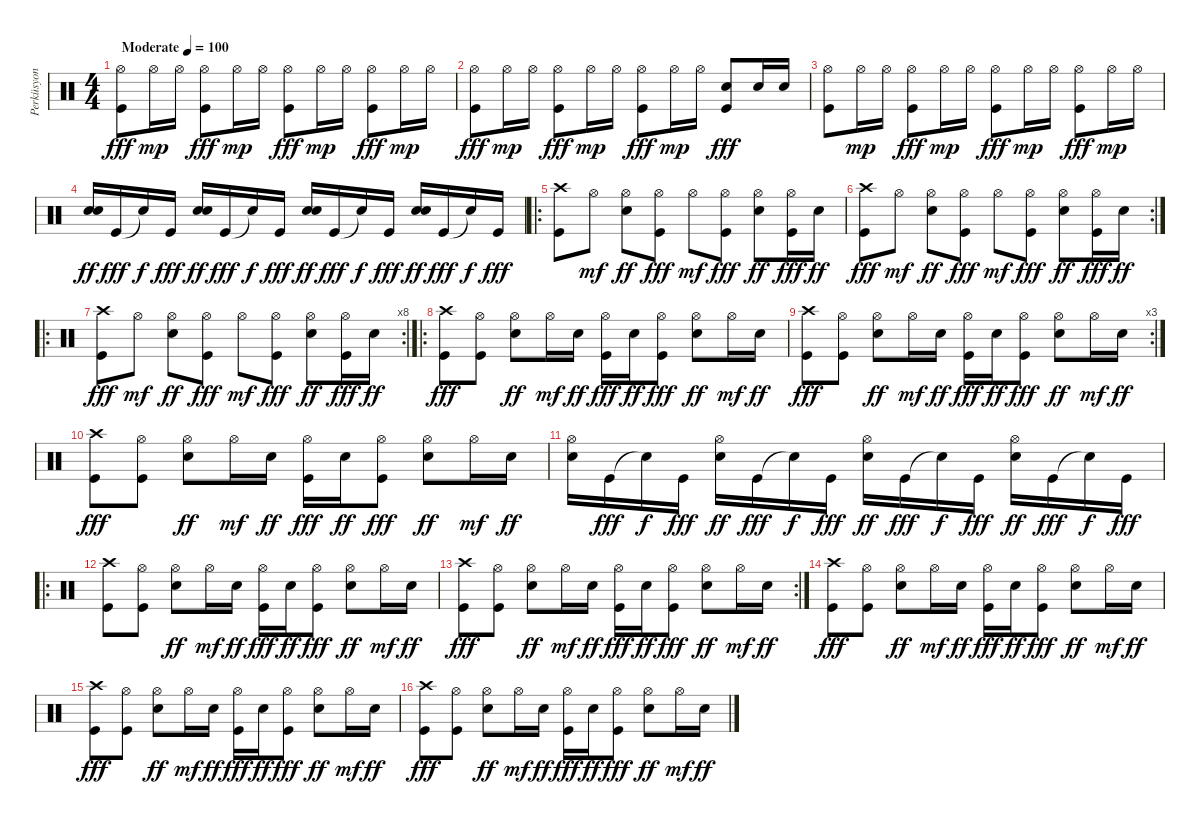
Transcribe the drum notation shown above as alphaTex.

\track ("Perküsyon" "Perküsyon") {instrument percussion}
\staff {score}
\articulation defaults
\ts (4 4)
\tempo (100 "Moderate")
\clef neutral
\ks c
("Hi-Hat (open)" "Kick (hit)").8{dy fff} "Hi-Hat (open)".16{dy mp} "Hi-Hat (open)".16 ("Hi-Hat (open)" "Kick (hit)").8{dy fff} "Hi-Hat (open)".16{dy mp} "Hi-Hat (open)".16 ("Hi-Hat (open)" "Kick (hit)").8{dy fff} "Hi-Hat (open)".16{dy mp} "Hi-Hat (open)".16 ("Hi-Hat (open)" "Kick (hit)").8{dy fff} "Hi-Hat (open)".16{dy mp} "Hi-Hat (open)".16 |
("Hi-Hat (open)" "Kick (hit)").8{dy fff} "Hi-Hat (open)".16{dy mp} "Hi-Hat (open)".16 ("Hi-Hat (open)" "Kick (hit)").8{dy fff} "Hi-Hat (open)".16{dy mp} "Hi-Hat (open)".16 ("Hi-Hat (open)" "Kick (hit)").8{dy fff} "Hi-Hat (open)".16{dy mp} "Hi-Hat (open)".16 ("Snare (hit) 2" "Kick (hit)").8{dy fff} "Snare (hit) 2".16 "Snare (hit) 2".16 |
("Hi-Hat (open)" "Kick (hit)").8 "Hi-Hat (open)".16{dy mp} "Hi-Hat (open)".16 ("Hi-Hat (open)" "Kick (hit)").8{dy fff} "Hi-Hat (open)".16{dy mp} "Hi-Hat (open)".16 ("Hi-Hat (open)" "Kick (hit)").8{dy fff} "Hi-Hat (open)".16{dy mp} "Hi-Hat (open)".16 ("Hi-Hat (open)" "Kick (hit)").8{dy fff} "Hi-Hat (open)".16{dy mp} "Hi-Hat (open)".16 |
("Snare (hit) 2" "Snare (hit) 2").16{dy ff} "Kick (hit)".16{dy fff} "Snare (hit)"{t}.16{dy f} "Kick (hit)".16{dy fff} ("Snare (hit) 2" "Snare (hit) 2").16{dy ff} "Kick (hit)".16{dy fff} "Snare (hit)"{t}.16{dy f} "Kick (hit)".16{dy fff} ("Snare (hit) 2" "Snare (hit) 2").16{dy ff} "Kick (hit)".16{dy fff} "Snare (hit)"{t}.16{dy f} "Kick (hit)".16{dy fff} ("Snare (hit) 2" "Snare (hit) 2").16{dy ff} "Kick (hit)".16{dy fff} "Snare (hit)"{t}.16{dy f} "Kick (hit)".16{dy fff} |
\ro
("Crash high (hit)" "Kick (hit)").8 "Hi-Hat (open)".8{dy mf} ("Hi-Hat (open)" "Snare (hit) 2").8{dy ff} ("Hi-Hat (open)" "Kick (hit)").8{dy fff} "Hi-Hat (open)".8{dy mf} ("Hi-Hat (open)" "Kick (hit)").8{dy fff} ("Hi-Hat (open)" "Snare (hit) 2").8{dy ff} ("Hi-Hat (open)" "Kick (hit)").16{dy fff} "Snare (hit) 2".16{dy ff} |
\rc 2
("Crash high (hit)" "Kick (hit)").8{dy fff} "Hi-Hat (open)".8{dy mf} ("Hi-Hat (open)" "Snare (hit) 2").8{dy ff} ("Hi-Hat (open)" "Kick (hit)").8{dy fff} "Hi-Hat (open)".8{dy mf} ("Hi-Hat (open)" "Kick (hit)").8{dy fff} ("Hi-Hat (open)" "Snare (hit) 2").8{dy ff} ("Hi-Hat (open)" "Kick (hit)").16{dy fff} "Snare (hit) 2".16{dy ff} |
\ro
\rc 8
("Crash high (hit)" "Kick (hit)").8{dy fff} "Hi-Hat (open)".8{dy mf} ("Hi-Hat (open)" "Snare (hit) 2").8{dy ff} ("Hi-Hat (open)" "Kick (hit)").8{dy fff} "Hi-Hat (open)".8{dy mf} ("Hi-Hat (open)" "Kick (hit)").8{dy fff} ("Hi-Hat (open)" "Snare (hit) 2").8{dy ff} ("Hi-Hat (open)" "Kick (hit)").16{dy fff} "Snare (hit) 2".16{dy ff} |
\ro
("Crash high (hit)" "Kick (hit)").8{dy fff} ("Hi-Hat (open)" "Kick (hit)").8 ("Hi-Hat (open)" "Snare (hit) 2").8{dy ff} "Hi-Hat (open)".16{dy mf} "Snare (hit) 2".16{dy ff} ("Hi-Hat (open)" "Kick (hit)").16{dy fff} "Snare (hit) 2".16{dy ff} ("Hi-Hat (open)" "Kick (hit)").8{dy fff} ("Hi-Hat (open)" "Snare (hit) 2").8{dy ff} "Hi-Hat (open)".16{dy mf} "Snare (hit) 2".16{dy ff} |
\rc 3
("Crash high (hit)" "Kick (hit)").8{dy fff} ("Hi-Hat (open)" "Kick (hit)").8 ("Hi-Hat (open)" "Snare (hit) 2").8{dy ff} "Hi-Hat (open)".16{dy mf} "Snare (hit) 2".16{dy ff} ("Hi-Hat (open)" "Kick (hit)").16{dy fff} "Snare (hit) 2".16{dy ff} ("Hi-Hat (open)" "Kick (hit)").8{dy fff} ("Hi-Hat (open)" "Snare (hit) 2").8{dy ff} "Hi-Hat (open)".16{dy mf} "Snare (hit) 2".16{dy ff} |
("Crash high (hit)" "Kick (hit)").8{dy fff} ("Hi-Hat (open)" "Kick (hit)").8 ("Hi-Hat (open)" "Snare (hit) 2").8{dy ff} "Hi-Hat (open)".16{dy mf} "Snare (hit) 2".16{dy ff} ("Hi-Hat (open)" "Kick (hit)").16{dy fff} "Snare (hit) 2".16{dy ff} ("Hi-Hat (open)" "Kick (hit)").8{dy fff} ("Hi-Hat (open)" "Snare (hit) 2").8{dy ff} "Hi-Hat (open)".16{dy mf} "Snare (hit) 2".16{dy ff} |
("Hi-Hat (open)" "Snare (hit) 2").16 "Kick (hit)".16{dy fff} "Snare (hit)"{t}.16{dy f} "Kick (hit)".16{dy fff} ("Hi-Hat (open)" "Snare (hit) 2").16{dy ff} "Kick (hit)".16{dy fff} "Snare (hit)"{t}.16{dy f} "Kick (hit)".16{dy fff} ("Hi-Hat (open)" "Snare (hit) 2").16{dy ff} "Kick (hit)".16{dy fff} "Snare (hit)"{t}.16{dy f} "Kick (hit)".16{dy fff} ("Hi-Hat (open)" "Snare (hit) 2").16{dy ff} "Kick (hit)".16{dy fff} "Snare (hit)"{t}.16{dy f} "Kick (hit)".16{dy fff} |
\ro
("Crash high (hit)" "Kick (hit)").8 ("Hi-Hat (open)" "Kick (hit)").8 ("Hi-Hat (open)" "Snare (hit) 2").8{dy ff} "Hi-Hat (open)".16{dy mf} "Snare (hit) 2".16{dy ff} ("Hi-Hat (open)" "Kick (hit)").16{dy fff} "Snare (hit) 2".16{dy ff} ("Hi-Hat (open)" "Kick (hit)").8{dy fff} ("Hi-Hat (open)" "Snare (hit) 2").8{dy ff} "Hi-Hat (open)".16{dy mf} "Snare (hit) 2".16{dy ff} |
\rc 2
("Crash high (hit)" "Kick (hit)").8{dy fff} ("Hi-Hat (open)" "Kick (hit)").8 ("Hi-Hat (open)" "Snare (hit) 2").8{dy ff} "Hi-Hat (open)".16{dy mf} "Snare (hit) 2".16{dy ff} ("Hi-Hat (open)" "Kick (hit)").16{dy fff} "Snare (hit) 2".16{dy ff} ("Hi-Hat (open)" "Kick (hit)").8{dy fff} ("Hi-Hat (open)" "Snare (hit) 2").8{dy ff} "Hi-Hat (open)".16{dy mf} "Snare (hit) 2".16{dy ff} |
("Crash high (hit)" "Kick (hit)").8{dy fff} ("Hi-Hat (open)" "Kick (hit)").8 ("Hi-Hat (open)" "Snare (hit) 2").8{dy ff} "Hi-Hat (open)".16{dy mf} "Snare (hit) 2".16{dy ff} ("Hi-Hat (open)" "Kick (hit)").16{dy fff} "Snare (hit) 2".16{dy ff} ("Hi-Hat (open)" "Kick (hit)").8{dy fff} ("Hi-Hat (open)" "Snare (hit) 2").8{dy ff} "Hi-Hat (open)".16{dy mf} "Snare (hit) 2".16{dy ff} |
("Crash high (hit)" "Kick (hit)").8{dy fff} ("Hi-Hat (open)" "Kick (hit)").8 ("Hi-Hat (open)" "Snare (hit) 2").8{dy ff} "Hi-Hat (open)".16{dy mf} "Snare (hit) 2".16{dy ff} ("Hi-Hat (open)" "Kick (hit)").16{dy fff} "Snare (hit) 2".16{dy ff} ("Hi-Hat (open)" "Kick (hit)").8{dy fff} ("Hi-Hat (open)" "Snare (hit) 2").8{dy ff} "Hi-Hat (open)".16{dy mf} "Snare (hit) 2".16{dy ff} |
("Crash high (hit)" "Kick (hit)").8{dy fff} ("Hi-Hat (open)" "Kick (hit)").8 ("Hi-Hat (open)" "Snare (hit) 2").8{dy ff} "Hi-Hat (open)".16{dy mf} "Snare (hit) 2".16{dy ff} ("Hi-Hat (open)" "Kick (hit)").16{dy fff} "Snare (hit) 2".16{dy ff} ("Hi-Hat (open)" "Kick (hit)").8{dy fff} ("Hi-Hat (open)" "Snare (hit) 2").8{dy ff} "Hi-Hat (open)".16{dy mf} "Snare (hit) 2".16{dy ff}
